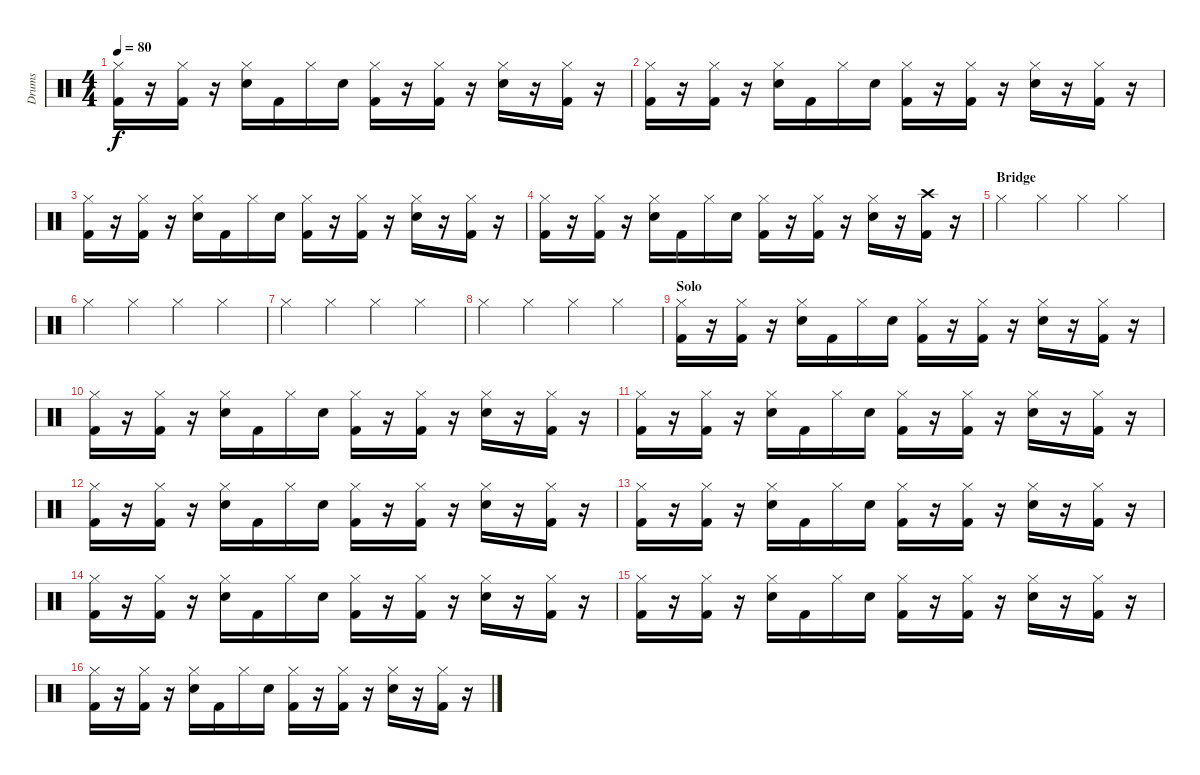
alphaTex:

\track ("Drums" "Drums") {instrument percussion}
\staff {score}
\articulation defaults
\ts (4 4)
\tempo 80
\clef neutral
\ks c
("Kick (hit) 2" "Hi-Hat (closed)").16{dy f} r.16 ("Kick (hit) 2" "Hi-Hat (closed)").16 r.16 ("Snare (hit) 2" "Hi-Hat (closed)").16 "Kick (hit) 2".16 "Hi-Hat (closed)".16 "Snare (hit) 2".16 ("Kick (hit) 2" "Hi-Hat (closed)").16 r.16 ("Kick (hit) 2" "Hi-Hat (closed)").16 r.16 ("Snare (hit) 2" "Hi-Hat (closed)").16 r.16 ("Kick (hit) 2" "Hi-Hat (closed)").16 r.16 |
("Kick (hit) 2" "Hi-Hat (closed)").16 r.16 ("Kick (hit) 2" "Hi-Hat (closed)").16 r.16 ("Snare (hit) 2" "Hi-Hat (closed)").16 "Kick (hit) 2".16 "Hi-Hat (closed)".16 "Snare (hit) 2".16 ("Kick (hit) 2" "Hi-Hat (closed)").16 r.16 ("Kick (hit) 2" "Hi-Hat (closed)").16 r.16 ("Snare (hit) 2" "Hi-Hat (closed)").16 r.16 ("Kick (hit) 2" "Hi-Hat (closed)").16 r.16 |
("Kick (hit) 2" "Hi-Hat (closed)").16 r.16 ("Kick (hit) 2" "Hi-Hat (closed)").16 r.16 ("Snare (hit) 2" "Hi-Hat (closed)").16 "Kick (hit) 2".16 "Hi-Hat (closed)".16 "Snare (hit) 2".16 ("Kick (hit) 2" "Hi-Hat (closed)").16 r.16 ("Kick (hit) 2" "Hi-Hat (closed)").16 r.16 ("Snare (hit) 2" "Hi-Hat (closed)").16 r.16 ("Kick (hit) 2" "Hi-Hat (closed)").16 r.16 |
("Kick (hit) 2" "Hi-Hat (closed)").16 r.16 ("Kick (hit) 2" "Hi-Hat (closed)").16 r.16 ("Snare (hit) 2" "Hi-Hat (closed)").16 "Kick (hit) 2".16 "Hi-Hat (closed)".16 "Snare (hit) 2".16 ("Kick (hit) 2" "Hi-Hat (closed)").16 r.16 ("Kick (hit) 2" "Hi-Hat (closed)").16 r.16 ("Snare (hit) 2" "Hi-Hat (closed)").16 r.16 ("Kick (hit) 2" "Crash high (hit)").16 r.16 |
\section ("" "Bridge")
"Hi-Hat (closed)".4 "Hi-Hat (closed)".4 "Hi-Hat (closed)".4 "Hi-Hat (closed)".4 |
"Hi-Hat (closed)".4 "Hi-Hat (closed)".4 "Hi-Hat (closed)".4 "Hi-Hat (closed)".4 |
"Hi-Hat (closed)".4 "Hi-Hat (closed)".4 "Hi-Hat (closed)".4 "Hi-Hat (closed)".4 |
"Hi-Hat (closed)".4 "Hi-Hat (closed)".4 "Hi-Hat (closed)".4 "Hi-Hat (closed)".4 |
\section ("" "Solo")
("Kick (hit) 2" "Hi-Hat (closed)").16 r.16 ("Kick (hit) 2" "Hi-Hat (closed)").16 r.16 ("Snare (hit) 2" "Hi-Hat (closed)").16 "Kick (hit) 2".16 "Hi-Hat (closed)".16 "Snare (hit) 2".16 ("Kick (hit) 2" "Hi-Hat (closed)").16 r.16 ("Kick (hit) 2" "Hi-Hat (closed)").16 r.16 ("Snare (hit) 2" "Hi-Hat (closed)").16 r.16 ("Kick (hit) 2" "Hi-Hat (closed)").16 r.16 |
("Kick (hit) 2" "Hi-Hat (closed)").16 r.16 ("Kick (hit) 2" "Hi-Hat (closed)").16 r.16 ("Snare (hit) 2" "Hi-Hat (closed)").16 "Kick (hit) 2".16 "Hi-Hat (closed)".16 "Snare (hit) 2".16 ("Kick (hit) 2" "Hi-Hat (closed)").16 r.16 ("Kick (hit) 2" "Hi-Hat (closed)").16 r.16 ("Snare (hit) 2" "Hi-Hat (closed)").16 r.16 ("Kick (hit) 2" "Hi-Hat (closed)").16 r.16 |
("Kick (hit) 2" "Hi-Hat (closed)").16 r.16 ("Kick (hit) 2" "Hi-Hat (closed)").16 r.16 ("Snare (hit) 2" "Hi-Hat (closed)").16 "Kick (hit) 2".16 "Hi-Hat (closed)".16 "Snare (hit) 2".16 ("Kick (hit) 2" "Hi-Hat (closed)").16 r.16 ("Kick (hit) 2" "Hi-Hat (closed)").16 r.16 ("Snare (hit) 2" "Hi-Hat (closed)").16 r.16 ("Kick (hit) 2" "Hi-Hat (closed)").16 r.16 |
("Kick (hit) 2" "Hi-Hat (closed)").16 r.16 ("Kick (hit) 2" "Hi-Hat (closed)").16 r.16 ("Snare (hit) 2" "Hi-Hat (closed)").16 "Kick (hit) 2".16 "Hi-Hat (closed)".16 "Snare (hit) 2".16 ("Kick (hit) 2" "Hi-Hat (closed)").16 r.16 ("Kick (hit) 2" "Hi-Hat (closed)").16 r.16 ("Snare (hit) 2" "Hi-Hat (closed)").16 r.16 ("Kick (hit) 2" "Hi-Hat (closed)").16 r.16 |
("Kick (hit) 2" "Hi-Hat (closed)").16 r.16 ("Kick (hit) 2" "Hi-Hat (closed)").16 r.16 ("Snare (hit) 2" "Hi-Hat (closed)").16 "Kick (hit) 2".16 "Hi-Hat (closed)".16 "Snare (hit) 2".16 ("Kick (hit) 2" "Hi-Hat (closed)").16 r.16 ("Kick (hit) 2" "Hi-Hat (closed)").16 r.16 ("Snare (hit) 2" "Hi-Hat (closed)").16 r.16 ("Kick (hit) 2" "Hi-Hat (closed)").16 r.16 |
("Kick (hit) 2" "Hi-Hat (closed)").16 r.16 ("Kick (hit) 2" "Hi-Hat (closed)").16 r.16 ("Snare (hit) 2" "Hi-Hat (closed)").16 "Kick (hit) 2".16 "Hi-Hat (closed)".16 "Snare (hit) 2".16 ("Kick (hit) 2" "Hi-Hat (closed)").16 r.16 ("Kick (hit) 2" "Hi-Hat (closed)").16 r.16 ("Snare (hit) 2" "Hi-Hat (closed)").16 r.16 ("Kick (hit) 2" "Hi-Hat (closed)").16 r.16 |
("Kick (hit) 2" "Hi-Hat (closed)").16 r.16 ("Kick (hit) 2" "Hi-Hat (closed)").16 r.16 ("Snare (hit) 2" "Hi-Hat (closed)").16 "Kick (hit) 2".16 "Hi-Hat (closed)".16 "Snare (hit) 2".16 ("Kick (hit) 2" "Hi-Hat (closed)").16 r.16 ("Kick (hit) 2" "Hi-Hat (closed)").16 r.16 ("Snare (hit) 2" "Hi-Hat (closed)").16 r.16 ("Kick (hit) 2" "Hi-Hat (closed)").16 r.16 |
("Kick (hit) 2" "Hi-Hat (closed)").16 r.16 ("Kick (hit) 2" "Hi-Hat (closed)").16 r.16 ("Snare (hit) 2" "Hi-Hat (closed)").16 "Kick (hit) 2".16 "Hi-Hat (closed)".16 "Snare (hit) 2".16 ("Kick (hit) 2" "Hi-Hat (closed)").16 r.16 ("Kick (hit) 2" "Hi-Hat (closed)").16 r.16 ("Snare (hit) 2" "Hi-Hat (closed)").16 r.16 ("Kick (hit) 2" "Hi-Hat (closed)").16 r.16
